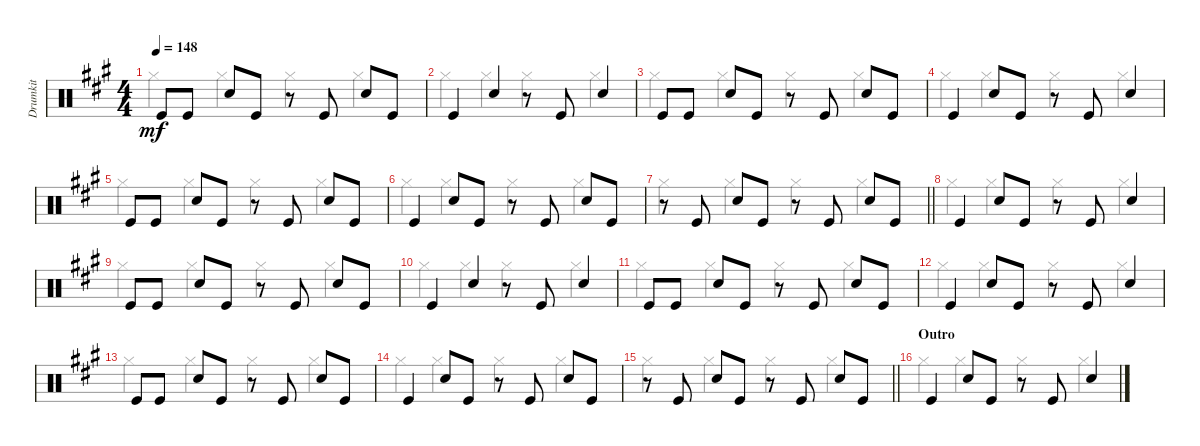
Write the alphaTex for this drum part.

\track ("Drumkit" "Drumkit") {instrument percussion}
\staff {score}
\articulation defaults
\voice
\ts (4 4)
\tempo 148
\clef neutral
\ks a "Kick (hit)".8{dy mf} "Kick (hit)".8 "Snare (hit) 2".8 "Kick (hit)".8
r.8 "Kick (hit)".8 "Snare (hit) 2".8 "Kick (hit)".8 |
"Kick (hit)".4 "Snare (hit) 2".4 r.8 "Kick (hit)".8 "Snare (hit) 2".4 |
"Kick (hit)".8 "Kick (hit)".8 "Snare (hit) 2".8 "Kick (hit)".8 r.8 "Kick (hit)".8 "Snare (hit) 2".8 "Kick (hit)".8 |
"Kick (hit)".4 "Snare (hit) 2".8 "Kick (hit)".8 r.8 "Kick (hit)".8 "Snare (hit) 2".4 |
"Kick (hit)".8 "Kick (hit)".8 "Snare (hit) 2".8 "Kick (hit)".8 r.8 "Kick (hit)".8 "Snare (hit) 2".8 "Kick (hit)".8 |
"Kick (hit)".4 "Snare (hit) 2".8 "Kick (hit)".8 r.8 "Kick (hit)".8 "Snare (hit) 2".8 "Kick (hit)".8 |
\barLineRight lightlight
r.8 "Kick (hit)".8 "Snare (hit) 2".8 "Kick (hit)".8 r.8 "Kick (hit)".8 "Snare (hit) 2".8 "Kick (hit)".8 |
"Kick (hit)".4 "Snare (hit) 2".8 "Kick (hit)".8 r.8 "Kick (hit)".8 "Snare (hit) 2".4 |
"Kick (hit)".8 "Kick (hit)".8 "Snare (hit) 2".8 "Kick (hit)".8 r.8 "Kick (hit)".8 "Snare (hit) 2".8 "Kick (hit)".8 |
"Kick (hit)".4 "Snare (hit) 2".4 r.8 "Kick (hit)".8 "Snare (hit) 2".4 |
"Kick (hit)".8 "Kick (hit)".8 "Snare (hit) 2".8 "Kick (hit)".8 r.8 "Kick (hit)".8 "Snare (hit) 2".8 "Kick (hit)".8 |
"Kick (hit)".4 "Snare (hit) 2".8 "Kick (hit)".8 r.8 "Kick (hit)".8 "Snare (hit) 2".4 |
"Kick (hit)".8 "Kick (hit)".8 "Snare (hit) 2".8 "Kick (hit)".8 r.8 "Kick (hit)".8 "Snare (hit) 2".8 "Kick (hit)".8 |
"Kick (hit)".4 "Snare (hit) 2".8 "Kick (hit)".8 r.8 "Kick (hit)".8 "Snare (hit) 2".8 "Kick (hit)".8 |
\barLineRight lightlight
r.8 "Kick (hit)".8 "Snare (hit) 2".8 "Kick (hit)".8 r.8 "Kick (hit)".8 "Snare (hit) 2".8 "Kick (hit)".8 |
\section ("" "Outro")
"Kick (hit)".4 "Snare (hit) 2".8 "Kick (hit)".8 r.8 "Kick (hit)".8 "Snare (hit) 2".4
\voice
\clef neutral
\ottava regular
\simile none
\ks a "Hi-Hat (closed)".4{dy mf} "Hi-Hat (closed)".4 "Hi-Hat (closed)".4 "Hi-Hat (closed)".4
|
"Hi-Hat (closed)".4 "Hi-Hat (closed)".4 "Hi-Hat (closed)".4 "Hi-Hat (closed)".4 |
"Hi-Hat (closed)".4 "Hi-Hat (closed)".4 "Hi-Hat (closed)".4 "Hi-Hat (closed)".4 |
"Hi-Hat (closed)".4 "Hi-Hat (closed)".4 "Hi-Hat (closed)".4 "Hi-Hat (closed)".4 |
"Hi-Hat (closed)".4 "Hi-Hat (closed)".4 "Hi-Hat (closed)".4 "Hi-Hat (closed)".4 |
"Hi-Hat (closed)".4 "Hi-Hat (closed)".4 "Hi-Hat (closed)".4 "Hi-Hat (closed)".4 |
\barLineRight lightlight "Hi-Hat (closed)".4 "Hi-Hat (closed)".4 "Hi-Hat (closed)".4 "Hi-Hat (closed)".4
|
"Hi-Hat (closed)".4 "Hi-Hat (closed)".4 "Hi-Hat (closed)".4 "Hi-Hat (closed)".4 |
"Hi-Hat (closed)".4 "Hi-Hat (closed)".4 "Hi-Hat (closed)".4 "Hi-Hat (closed)".4 |
"Hi-Hat (closed)".4 "Hi-Hat (closed)".4 "Hi-Hat (closed)".4 "Hi-Hat (closed)".4 |
"Hi-Hat (closed)".4 "Hi-Hat (closed)".4 "Hi-Hat (closed)".4 "Hi-Hat (closed)".4 |
"Hi-Hat (closed)".4 "Hi-Hat (closed)".4 "Hi-Hat (closed)".4 "Hi-Hat (closed)".4 |
"Hi-Hat (closed)".4 "Hi-Hat (closed)".4 "Hi-Hat (closed)".4 "Hi-Hat (closed)".4 |
"Hi-Hat (closed)".4 "Hi-Hat (closed)".4 "Hi-Hat (closed)".4 "Hi-Hat (closed)".4 |
\barLineRight lightlight "Hi-Hat (closed)".4 "Hi-Hat (closed)".4 "Hi-Hat (closed)".4 "Hi-Hat (closed)".4
|
"Hi-Hat (closed)".4 "Hi-Hat (closed)".4 "Hi-Hat (closed)".4 "Hi-Hat (closed)".4
